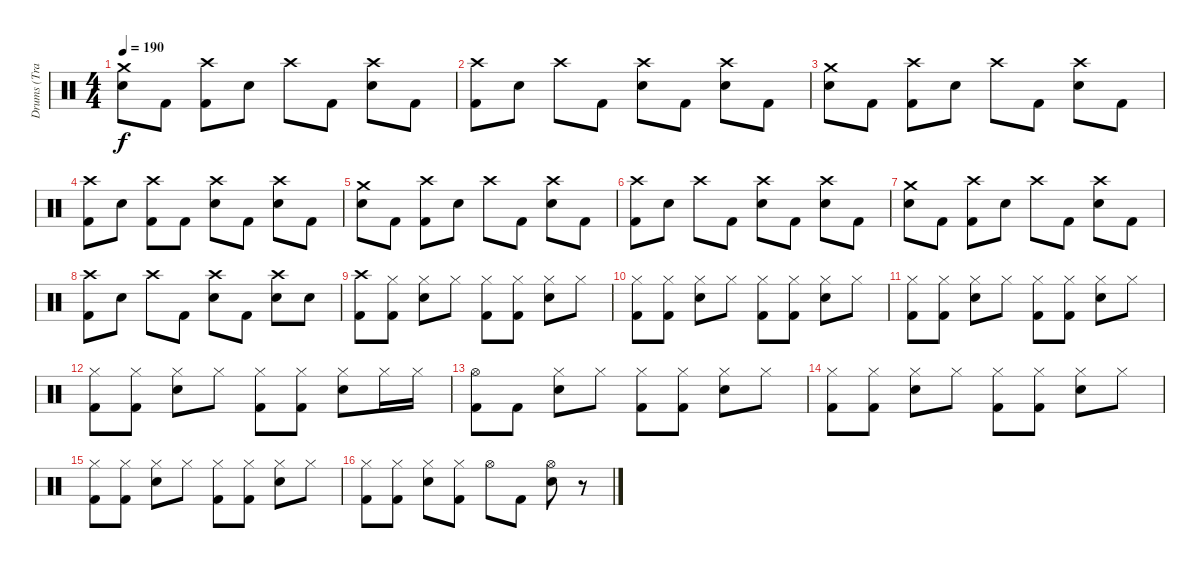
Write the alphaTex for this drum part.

\track ("Drums (Travis)" "Drums (Tra") {instrument percussion}
\staff {score}
\articulation defaults
\ts (4 4)
\tempo 190
\clef neutral
\ks c
("Crash medium (hit)" "Electric Snare (hit)").8{dy f} "Kick (hit) 2".8 ("Crash high (hit)" "Kick (hit) 2").8 "Electric Snare (hit)".8 "Crash high (hit)".8 "Kick (hit) 2".8 ("Crash high (hit)" "Electric Snare (hit)").8 "Kick (hit) 2".8 |
("Crash high (hit)" "Kick (hit) 2").8 "Electric Snare (hit)".8 "Crash high (hit)".8 "Kick (hit) 2".8 ("Crash high (hit)" "Electric Snare (hit)").8 "Kick (hit) 2".8 ("Crash high (hit)" "Electric Snare (hit)").8 "Kick (hit) 2".8 |
("Crash medium (hit)" "Electric Snare (hit)").8 "Kick (hit) 2".8 ("Crash high (hit)" "Kick (hit) 2").8 "Electric Snare (hit)".8 "Crash high (hit)".8 "Kick (hit) 2".8 ("Crash high (hit)" "Electric Snare (hit)").8 "Kick (hit) 2".8 |
("Crash high (hit)" "Kick (hit) 2").8 "Electric Snare (hit)".8 ("Crash high (hit)" "Kick (hit) 2").8 "Kick (hit) 2".8 ("Crash high (hit)" "Electric Snare (hit)").8 "Kick (hit) 2".8 ("Crash high (hit)" "Electric Snare (hit)").8 "Kick (hit) 2".8 |
("Crash medium (hit)" "Electric Snare (hit)").8 "Kick (hit) 2".8 ("Crash high (hit)" "Kick (hit) 2").8 "Electric Snare (hit)".8 "Crash high (hit)".8 "Kick (hit) 2".8 ("Crash high (hit)" "Electric Snare (hit)").8 "Kick (hit) 2".8 |
("Crash high (hit)" "Kick (hit) 2").8 "Electric Snare (hit)".8 "Crash high (hit)".8 "Kick (hit) 2".8 ("Crash high (hit)" "Electric Snare (hit)").8 "Kick (hit) 2".8 ("Crash high (hit)" "Electric Snare (hit)").8 "Kick (hit) 2".8 |
("Crash medium (hit)" "Electric Snare (hit)").8 "Kick (hit) 2".8 ("Crash high (hit)" "Kick (hit) 2").8 "Electric Snare (hit)".8 "Crash high (hit)".8 "Kick (hit) 2".8 ("Crash high (hit)" "Electric Snare (hit)").8 "Kick (hit) 2".8 |
("Crash high (hit)" "Kick (hit) 2").8 "Electric Snare (hit)".8 "Crash high (hit)".8 "Kick (hit) 2".8 ("Crash high (hit)" "Electric Snare (hit)").8 "Kick (hit) 2".8 ("Crash high (hit)" "Electric Snare (hit)").8 "Electric Snare (hit)".8 |
("Crash high (hit)" "Kick (hit) 2").8 ("Hi-Hat (closed)" "Kick (hit) 2").8 ("Hi-Hat (closed)" "Electric Snare (hit)").8 "Hi-Hat (closed)".8 ("Hi-Hat (closed)" "Kick (hit) 2").8 ("Hi-Hat (closed)" "Kick (hit) 2").8 ("Hi-Hat (closed)" "Electric Snare (hit)").8 "Hi-Hat (closed)".8 |
("Hi-Hat (closed)" "Kick (hit) 2").8 ("Hi-Hat (closed)" "Kick (hit) 2").8 ("Hi-Hat (closed)" "Electric Snare (hit)").8 "Hi-Hat (closed)".8 ("Hi-Hat (closed)" "Kick (hit) 2").8 ("Hi-Hat (closed)" "Kick (hit) 2").8 ("Hi-Hat (closed)" "Electric Snare (hit)").8 "Hi-Hat (closed)".8 |
("Hi-Hat (closed)" "Kick (hit) 2").8 ("Hi-Hat (closed)" "Kick (hit) 2").8 ("Hi-Hat (closed)" "Electric Snare (hit)").8 "Hi-Hat (closed)".8 ("Hi-Hat (closed)" "Kick (hit) 2").8 ("Hi-Hat (closed)" "Kick (hit) 2").8 ("Hi-Hat (closed)" "Electric Snare (hit)").8 "Hi-Hat (closed)".8 |
("Hi-Hat (closed)" "Kick (hit) 2").8 ("Hi-Hat (closed)" "Kick (hit) 2").8 ("Hi-Hat (closed)" "Electric Snare (hit)").8 "Hi-Hat (closed)".8 ("Hi-Hat (closed)" "Kick (hit) 2").8 ("Hi-Hat (closed)" "Kick (hit) 2").8 ("Hi-Hat (closed)" "Electric Snare (hit)").8 "Hi-Hat (closed)".16 "Hi-Hat (closed)".16 |
("Hi-Hat (open)" "Kick (hit) 2").8 "Kick (hit) 2".8 ("Hi-Hat (closed)" "Electric Snare (hit)").8 "Hi-Hat (closed)".8 ("Hi-Hat (closed)" "Kick (hit) 2").8 ("Hi-Hat (closed)" "Kick (hit) 2").8 ("Hi-Hat (closed)" "Electric Snare (hit)").8 "Hi-Hat (closed)".8 |
("Hi-Hat (closed)" "Kick (hit) 2").8 ("Hi-Hat (closed)" "Kick (hit) 2").8 ("Hi-Hat (closed)" "Electric Snare (hit)").8 "Hi-Hat (closed)".8 ("Hi-Hat (closed)" "Kick (hit) 2").8 ("Hi-Hat (closed)" "Kick (hit) 2").8 ("Hi-Hat (closed)" "Electric Snare (hit)").8 "Hi-Hat (closed)".8 |
("Hi-Hat (closed)" "Kick (hit) 2").8 ("Hi-Hat (closed)" "Kick (hit) 2").8 ("Hi-Hat (closed)" "Electric Snare (hit)").8 "Hi-Hat (closed)".8 ("Hi-Hat (closed)" "Kick (hit) 2").8 ("Hi-Hat (closed)" "Kick (hit) 2").8 ("Hi-Hat (closed)" "Electric Snare (hit)").8 "Hi-Hat (closed)".8 |
("Hi-Hat (closed)" "Kick (hit) 2").8 ("Hi-Hat (closed)" "Kick (hit) 2").8 ("Hi-Hat (closed)" "Electric Snare (hit)").8 ("Hi-Hat (closed)" "Kick (hit) 2").8 "Hi-Hat (open)".8 "Kick (hit) 2".8 ("Hi-Hat (open)" "Electric Snare (hit)").8 r.8
